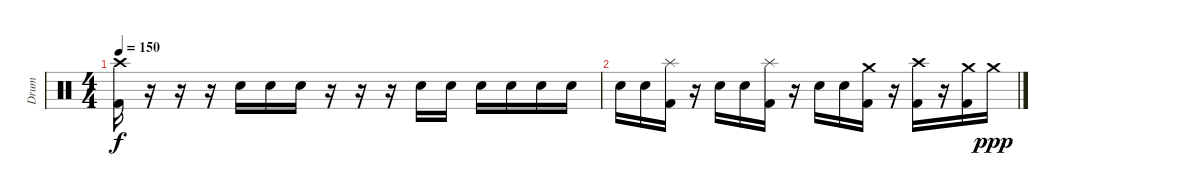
\track ("Drum" "Drum") {instrument percussion}
\staff {score}
\articulation defaults
\ts (4 4)
\tempo 150
\clef neutral
\ks c
("Crash high (hit)" "Kick (hit) 2").16{dy f} r.16 r.16 r.16 "Snare (hit) 2".16 "Snare (hit) 2".16 "Snare (hit) 2".16 r.16 r.16 r.16 "Snare (hit) 2".16 "Snare (hit) 2".16 "Snare (hit) 2".16 "Snare (hit) 2".16 "Snare (hit) 2".16 "Snare (hit) 2".16 |
"Snare (hit) 2".16 "Snare (hit) 2".16 ("Splash (hit)" "Kick (hit) 2").16 r.16 "Snare (hit) 2".16 "Snare (hit) 2".16 ("Splash (hit)" "Kick (hit) 2").16 r.16 "Snare (hit) 2".16 "Snare (hit) 2".16 ("Crash medium (hit)" "Kick (hit) 2").16 r.16 ("Crash high (hit)" "Kick (hit) 2").16 r.16 ("Crash medium (hit)" "Kick (hit) 2").16 "Crash medium (hit)".16{dy ppp}
